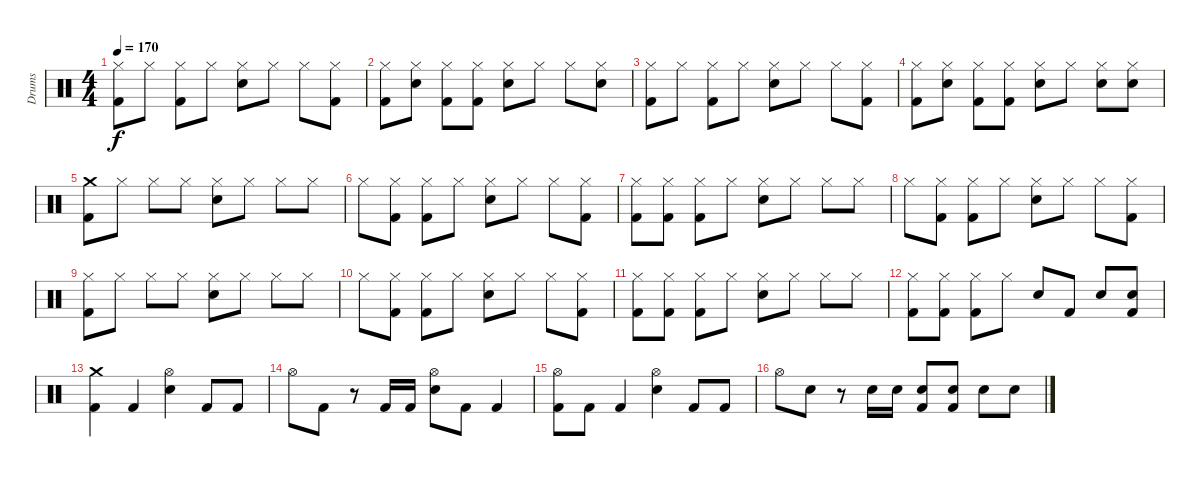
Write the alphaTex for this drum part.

\track ("Drums" "Drums") {instrument percussion}
\staff {score}
\articulation defaults
\ts (4 4)
\tempo 170
\clef neutral
\ks c
("Hi-Hat (closed)" "Kick (hit) 2").8{dy f} "Hi-Hat (closed)".8 ("Hi-Hat (closed)" "Kick (hit) 2").8 "Hi-Hat (closed)".8 ("Hi-Hat (closed)" "Snare (hit) 2").8 "Hi-Hat (closed)".8 "Hi-Hat (closed)".8 ("Hi-Hat (closed)" "Kick (hit) 2").8 |
("Hi-Hat (closed)" "Kick (hit) 2").8 ("Hi-Hat (closed)" "Snare (hit) 2").8 ("Hi-Hat (closed)" "Kick (hit) 2").8 ("Hi-Hat (closed)" "Kick (hit) 2").8 ("Hi-Hat (closed)" "Snare (hit) 2").8 "Hi-Hat (closed)".8 "Hi-Hat (closed)".8 ("Hi-Hat (closed)" "Snare (hit) 2").8 |
("Hi-Hat (closed)" "Kick (hit) 2").8 "Hi-Hat (closed)".8 ("Hi-Hat (closed)" "Kick (hit) 2").8 "Hi-Hat (closed)".8 ("Hi-Hat (closed)" "Snare (hit) 2").8 "Hi-Hat (closed)".8 "Hi-Hat (closed)".8 ("Hi-Hat (closed)" "Kick (hit) 2").8 |
("Hi-Hat (closed)" "Kick (hit) 2").8 ("Hi-Hat (closed)" "Snare (hit) 2").8 ("Hi-Hat (closed)" "Kick (hit) 2").8 ("Hi-Hat (closed)" "Kick (hit) 2").8 ("Hi-Hat (closed)" "Snare (hit) 2").8 "Hi-Hat (closed)".8 ("Hi-Hat (closed)" "Snare (hit) 2").8 ("Hi-Hat (closed)" "Snare (hit) 2").8 |
("Crash medium (hit)" "Kick (hit) 2").8 "Hi-Hat (closed)".8 "Hi-Hat (closed)".8 "Hi-Hat (closed)".8 ("Hi-Hat (closed)" "Snare (hit) 2").8 "Hi-Hat (closed)".8 "Hi-Hat (closed)".8 "Hi-Hat (closed)".8 |
"Hi-Hat (closed)".8 ("Hi-Hat (closed)" "Kick (hit) 2").8 ("Hi-Hat (closed)" "Kick (hit) 2").8 "Hi-Hat (closed)".8 ("Hi-Hat (closed)" "Snare (hit) 2").8 "Hi-Hat (closed)".8 "Hi-Hat (closed)".8 ("Hi-Hat (closed)" "Kick (hit) 2").8 |
("Hi-Hat (closed)" "Kick (hit) 2").8 ("Hi-Hat (closed)" "Kick (hit) 2").8 ("Hi-Hat (closed)" "Kick (hit) 2").8 "Hi-Hat (closed)".8 ("Hi-Hat (closed)" "Snare (hit) 2").8 "Hi-Hat (closed)".8 "Hi-Hat (closed)".8 "Hi-Hat (closed)".8 |
"Hi-Hat (closed)".8 ("Hi-Hat (closed)" "Kick (hit) 2").8 ("Hi-Hat (closed)" "Kick (hit) 2").8 "Hi-Hat (closed)".8 ("Hi-Hat (closed)" "Snare (hit) 2").8 "Hi-Hat (closed)".8 "Hi-Hat (closed)".8 ("Hi-Hat (closed)" "Kick (hit) 2").8 |
("Hi-Hat (closed)" "Kick (hit) 2").8 "Hi-Hat (closed)".8 "Hi-Hat (closed)".8 "Hi-Hat (closed)".8 ("Hi-Hat (closed)" "Snare (hit) 2").8 "Hi-Hat (closed)".8 "Hi-Hat (closed)".8 "Hi-Hat (closed)".8 |
"Hi-Hat (closed)".8 ("Hi-Hat (closed)" "Kick (hit) 2").8 ("Hi-Hat (closed)" "Kick (hit) 2").8 "Hi-Hat (closed)".8 ("Hi-Hat (closed)" "Snare (hit) 2").8 "Hi-Hat (closed)".8 "Hi-Hat (closed)".8 ("Hi-Hat (closed)" "Kick (hit) 2").8 |
("Hi-Hat (closed)" "Kick (hit) 2").8 ("Hi-Hat (closed)" "Kick (hit) 2").8 ("Hi-Hat (closed)" "Kick (hit) 2").8 "Hi-Hat (closed)".8 ("Hi-Hat (closed)" "Snare (hit) 2").8 "Hi-Hat (closed)".8 "Hi-Hat (closed)".8 "Hi-Hat (closed)".8 |
("Hi-Hat (closed)" "Kick (hit) 2").8 ("Hi-Hat (closed)" "Kick (hit) 2").8 ("Hi-Hat (closed)" "Kick (hit) 2").8 "Hi-Hat (closed)".8 "Snare (hit) 2".8 "Kick (hit) 2".8 "Snare (hit) 2".8 ("Snare (hit) 2" "Kick (hit) 2").8 |
("Crash medium (hit)" "Kick (hit) 2").4 "Kick (hit) 2".4 ("Hi-Hat (open)" "Snare (hit) 2").4 "Kick (hit) 2".8 "Kick (hit) 2".8 |
"Hi-Hat (open)".8 "Kick (hit) 2".8 r.8 "Kick (hit) 2".16 "Kick (hit) 2".16 ("Hi-Hat (open)" "Snare (hit) 2").8 "Kick (hit) 2".8 "Kick (hit) 2".4 |
("Hi-Hat (open)" "Kick (hit) 2").8 "Kick (hit) 2".8 "Kick (hit) 2".4 ("Hi-Hat (open)" "Snare (hit) 2").4 "Kick (hit) 2".8 "Kick (hit) 2".8 |
"Hi-Hat (open)".8 "Snare (hit) 2".8 r.8 "Snare (hit) 2".16 "Snare (hit) 2".16 ("Snare (hit) 2" "Kick (hit) 2").8 ("Snare (hit) 2" "Kick (hit) 2").8 "Snare (hit) 2".8 "Snare (hit) 2".8
